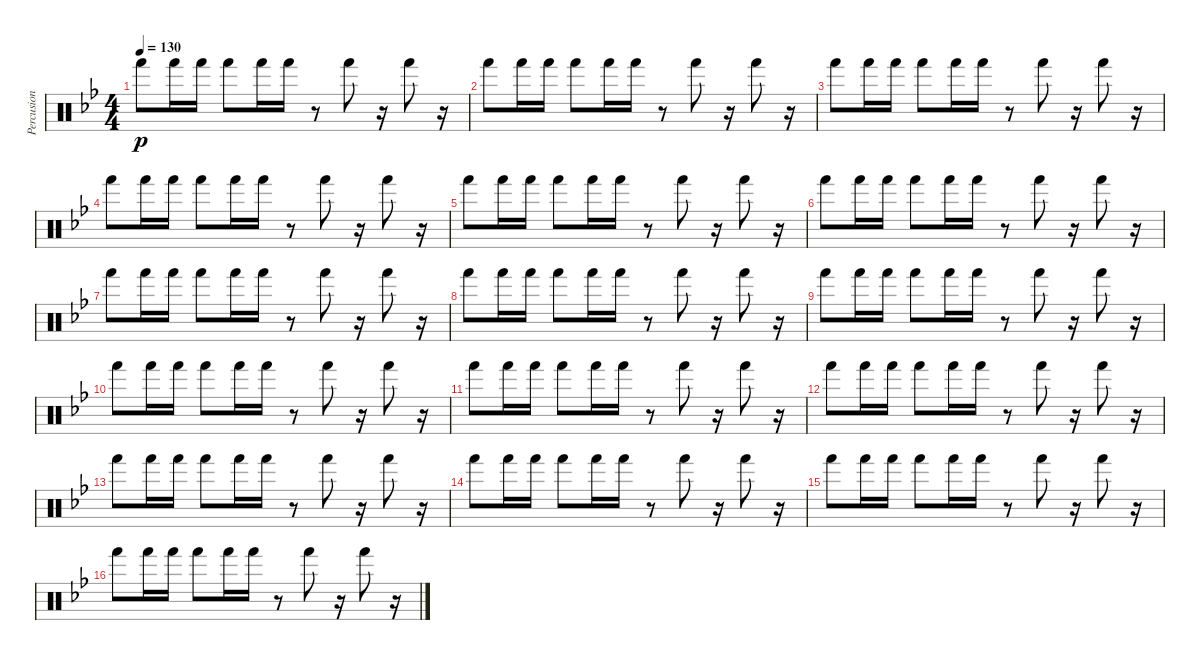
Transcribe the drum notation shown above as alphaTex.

\track ("Percusion III" "Percusion ") {instrument percussion}
\staff {score}
\articulation defaults
\ts (4 4)
\tempo 130
\clef neutral
\ks gminor "Hand (hit)".8{dy p} "Hand (hit)".16 "Hand (hit)".16 "Hand (hit)".8 "Hand (hit)".16 "Hand (hit)".16
r.8 "Hand (hit)".8 r.16 "Hand (hit)".8 r.16 |
"Hand (hit)".8 "Hand (hit)".16 "Hand (hit)".16 "Hand (hit)".8 "Hand (hit)".16 "Hand (hit)".16 r.8 "Hand (hit)".8 r.16 "Hand (hit)".8 r.16 |
"Hand (hit)".8 "Hand (hit)".16 "Hand (hit)".16 "Hand (hit)".8 "Hand (hit)".16 "Hand (hit)".16 r.8 "Hand (hit)".8 r.16 "Hand (hit)".8 r.16 |
"Hand (hit)".8 "Hand (hit)".16 "Hand (hit)".16 "Hand (hit)".8 "Hand (hit)".16 "Hand (hit)".16 r.8 "Hand (hit)".8 r.16 "Hand (hit)".8 r.16 |
"Hand (hit)".8 "Hand (hit)".16 "Hand (hit)".16 "Hand (hit)".8 "Hand (hit)".16 "Hand (hit)".16 r.8 "Hand (hit)".8 r.16 "Hand (hit)".8 r.16 |
"Hand (hit)".8 "Hand (hit)".16 "Hand (hit)".16 "Hand (hit)".8 "Hand (hit)".16 "Hand (hit)".16 r.8 "Hand (hit)".8 r.16 "Hand (hit)".8 r.16 |
"Hand (hit)".8 "Hand (hit)".16 "Hand (hit)".16 "Hand (hit)".8 "Hand (hit)".16 "Hand (hit)".16 r.8 "Hand (hit)".8 r.16 "Hand (hit)".8 r.16 |
"Hand (hit)".8 "Hand (hit)".16 "Hand (hit)".16 "Hand (hit)".8 "Hand (hit)".16 "Hand (hit)".16 r.8 "Hand (hit)".8 r.16 "Hand (hit)".8 r.16 |
"Hand (hit)".8 "Hand (hit)".16 "Hand (hit)".16 "Hand (hit)".8 "Hand (hit)".16 "Hand (hit)".16 r.8 "Hand (hit)".8 r.16 "Hand (hit)".8 r.16 |
"Hand (hit)".8 "Hand (hit)".16 "Hand (hit)".16 "Hand (hit)".8 "Hand (hit)".16 "Hand (hit)".16 r.8 "Hand (hit)".8 r.16 "Hand (hit)".8 r.16 |
"Hand (hit)".8 "Hand (hit)".16 "Hand (hit)".16 "Hand (hit)".8 "Hand (hit)".16 "Hand (hit)".16 r.8 "Hand (hit)".8 r.16 "Hand (hit)".8 r.16 |
"Hand (hit)".8 "Hand (hit)".16 "Hand (hit)".16 "Hand (hit)".8 "Hand (hit)".16 "Hand (hit)".16 r.8 "Hand (hit)".8 r.16 "Hand (hit)".8 r.16 |
"Hand (hit)".8 "Hand (hit)".16 "Hand (hit)".16 "Hand (hit)".8 "Hand (hit)".16 "Hand (hit)".16 r.8 "Hand (hit)".8 r.16 "Hand (hit)".8 r.16 |
"Hand (hit)".8 "Hand (hit)".16 "Hand (hit)".16 "Hand (hit)".8 "Hand (hit)".16 "Hand (hit)".16 r.8 "Hand (hit)".8 r.16 "Hand (hit)".8 r.16 |
"Hand (hit)".8 "Hand (hit)".16 "Hand (hit)".16 "Hand (hit)".8 "Hand (hit)".16 "Hand (hit)".16 r.8 "Hand (hit)".8 r.16 "Hand (hit)".8 r.16 |
"Hand (hit)".8 "Hand (hit)".16 "Hand (hit)".16 "Hand (hit)".8 "Hand (hit)".16 "Hand (hit)".16 r.8 "Hand (hit)".8 r.16 "Hand (hit)".8 r.16
